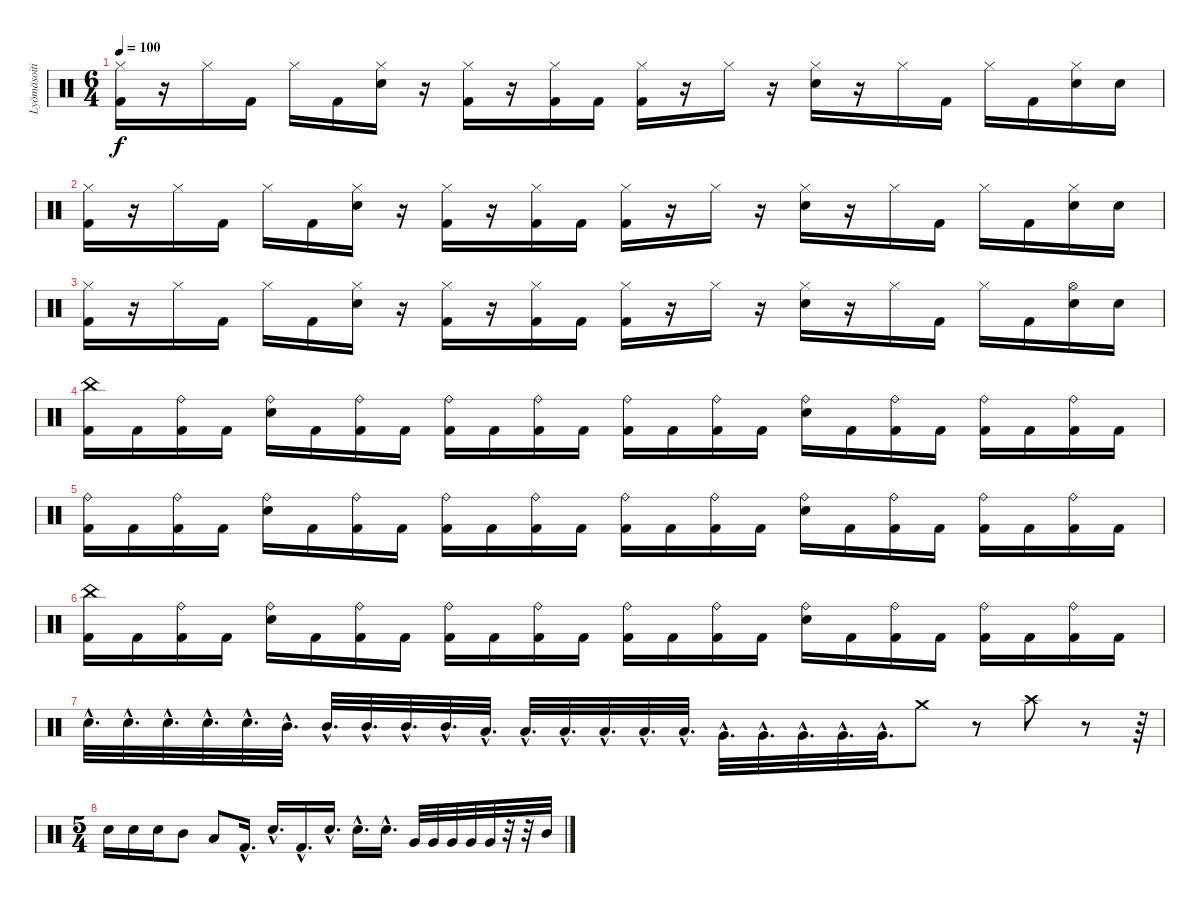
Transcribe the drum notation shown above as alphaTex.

\track ("Lyömäsoitin" "Lyömäsoiti") {instrument percussion}
\staff {score}
\articulation defaults
\ts (6 4)
\tempo 100
\clef neutral
\ks c
("Hi-Hat (closed)" "Kick (hit) 2").16{dy f} r.16 "Hi-Hat (closed)".16 "Kick (hit) 2".16 "Hi-Hat (closed)".16 "Kick (hit) 2".16 ("Hi-Hat (closed)" "Snare (hit) 2").16 r.16 ("Hi-Hat (closed)" "Kick (hit) 2").16 r.16 ("Hi-Hat (closed)" "Kick (hit) 2").16 "Kick (hit) 2".16 ("Hi-Hat (closed)" "Kick (hit) 2").16 r.16 "Hi-Hat (closed)".16 r.16 ("Hi-Hat (closed)" "Snare (hit) 2").16 r.16 "Hi-Hat (closed)".16 "Kick (hit) 2".16 "Hi-Hat (closed)".16 "Kick (hit) 2".16 ("Hi-Hat (closed)" "Snare (hit) 2").16 "Snare (hit) 2".16 |
("Hi-Hat (closed)" "Kick (hit) 2").16 r.16 "Hi-Hat (closed)".16 "Kick (hit) 2".16 "Hi-Hat (closed)".16 "Kick (hit) 2".16 ("Hi-Hat (closed)" "Snare (hit) 2").16 r.16 ("Hi-Hat (closed)" "Kick (hit) 2").16 r.16 ("Hi-Hat (closed)" "Kick (hit) 2").16 "Kick (hit) 2".16 ("Hi-Hat (closed)" "Kick (hit) 2").16 r.16 "Hi-Hat (closed)".16 r.16 ("Hi-Hat (closed)" "Snare (hit) 2").16 r.16 "Hi-Hat (closed)".16 "Kick (hit) 2".16 "Hi-Hat (closed)".16 "Kick (hit) 2".16 ("Hi-Hat (closed)" "Snare (hit) 2").16 "Snare (hit) 2".16 |
("Hi-Hat (closed)" "Kick (hit) 2").16 r.16 "Hi-Hat (closed)".16 "Kick (hit) 2".16 "Hi-Hat (closed)".16 "Kick (hit) 2".16 ("Hi-Hat (closed)" "Snare (hit) 2").16 r.16 ("Hi-Hat (closed)" "Kick (hit) 2").16 r.16 ("Hi-Hat (closed)" "Kick (hit) 2").16 "Kick (hit) 2".16 ("Hi-Hat (closed)" "Kick (hit) 2").16 r.16 "Hi-Hat (closed)".16 r.16 ("Hi-Hat (closed)" "Snare (hit) 2").16 r.16 "Hi-Hat (closed)".16 "Kick (hit) 2".16 "Hi-Hat (closed)".16 "Kick (hit) 2".16 ("Hi-Hat (open)" "Snare (hit) 2").16 "Snare (hit) 2".16 |
("China (hit)" "Kick (hit) 2").16 "Kick (hit) 2".16 ("Ride (bell)" "Kick (hit) 2").16 "Kick (hit) 2".16 ("Ride (bell)" "Snare (hit) 2").16 "Kick (hit) 2".16 ("Ride (bell)" "Kick (hit) 2").16 "Kick (hit) 2".16 ("Ride (bell)" "Kick (hit) 2").16 "Kick (hit) 2".16 ("Ride (bell)" "Kick (hit) 2").16 "Kick (hit) 2".16 ("Ride (bell)" "Kick (hit) 2").16 "Kick (hit) 2".16 ("Ride (bell)" "Kick (hit) 2").16 "Kick (hit) 2".16 ("Ride (bell)" "Snare (hit) 2").16 "Kick (hit) 2".16 ("Ride (bell)" "Kick (hit) 2").16 "Kick (hit) 2".16 ("Ride (bell)" "Kick (hit) 2").16 "Kick (hit) 2".16 ("Ride (bell)" "Kick (hit) 2").16 "Kick (hit) 2".16 |
("Ride (bell)" "Kick (hit) 2").16 "Kick (hit) 2".16 ("Ride (bell)" "Kick (hit) 2").16 "Kick (hit) 2".16 ("Ride (bell)" "Snare (hit) 2").16 "Kick (hit) 2".16 ("Ride (bell)" "Kick (hit) 2").16 "Kick (hit) 2".16 ("Ride (bell)" "Kick (hit) 2").16 "Kick (hit) 2".16 ("Ride (bell)" "Kick (hit) 2").16 "Kick (hit) 2".16 ("Ride (bell)" "Kick (hit) 2").16 "Kick (hit) 2".16 ("Ride (bell)" "Kick (hit) 2").16 "Kick (hit) 2".16 ("Ride (bell)" "Snare (hit) 2").16 "Kick (hit) 2".16 ("Ride (bell)" "Kick (hit) 2").16 "Kick (hit) 2".16 ("Ride (bell)" "Kick (hit) 2").16 "Kick (hit) 2".16 ("Ride (bell)" "Kick (hit) 2").16 "Kick (hit) 2".16 |
("China (hit)" "Kick (hit) 2").16 "Kick (hit) 2".16 ("Ride (bell)" "Kick (hit) 2").16 "Kick (hit) 2".16 ("Ride (bell)" "Snare (hit) 2").16 "Kick (hit) 2".16 ("Ride (bell)" "Kick (hit) 2").16 "Kick (hit) 2".16 ("Ride (bell)" "Kick (hit) 2").16 "Kick (hit) 2".16 ("Ride (bell)" "Kick (hit) 2").16 "Kick (hit) 2".16 ("Ride (bell)" "Kick (hit) 2").16 "Kick (hit) 2".16 ("Ride (bell)" "Kick (hit) 2").16 "Kick (hit) 2".16 ("Ride (bell)" "Snare (hit) 2").16 "Kick (hit) 2".16 ("Ride (bell)" "Kick (hit) 2").16 "Kick (hit) 2".16 ("Ride (bell)" "Kick (hit) 2").16 "Kick (hit) 2".16 ("Ride (bell)" "Kick (hit) 2").16 "Kick (hit) 2".16 |
"Snare (hit) 2"{hac}.32{d} "Snare (hit) 2"{hac}.32{d} "Snare (hit) 2"{hac}.32{d} "Snare (hit) 2"{hac}.32{d} "Snare (hit) 2"{hac}.32{d} "Mid Tom (hit)"{hac}.32{d} "Mid Tom (hit)"{hac}.32{d} "Mid Tom (hit)"{hac}.32{d} "Mid Tom (hit)"{hac}.32{d} "Mid Tom (hit)"{hac}.32{d} "Low Tom (hit)"{hac}.32{d} "Low Tom (hit)"{hac}.32{d} "Low Tom (hit)"{hac}.32{d} "Low Tom (hit)"{hac}.32{d} "Low Tom (hit)"{hac}.32{d} "Low Tom (hit)"{hac}.32{d} "Very Low Tom (hit)"{hac}.32{d} "Very Low Tom (hit)"{hac}.32{d} "Very Low Tom (hit)"{hac}.32{d} "Very Low Tom (hit)"{hac}.32{d} "Very Low Tom (hit)"{hac}.32{d} "Crash medium (hit)".8 r.8 "Crash high (hit)".8 r.8 r.64 |
\ts (5 4)
"Snare (hit) 2".16 "Snare (hit) 2".16 "Snare (hit) 2".16 "Mid Tom (hit)".8 "Low Tom (hit)".8 "Kick (hit) 2"{hac}.16{d} "Snare (hit) 2"{hac}.16{d} "Kick (hit) 2"{hac}.16{d} "Snare (hit) 2"{hac}.16{d} "Snare (hit) 2"{hac}.16{d} "Snare (hit) 2"{hac}.16{d} "Very Low Tom (hit)".32 "Very Low Tom (hit)".32 "Very Low Tom (hit)".32 "Very Low Tom (hit)".32 "Very Low Tom (hit)".32 r.32 r.32 "Mid Tom (hit)".32
